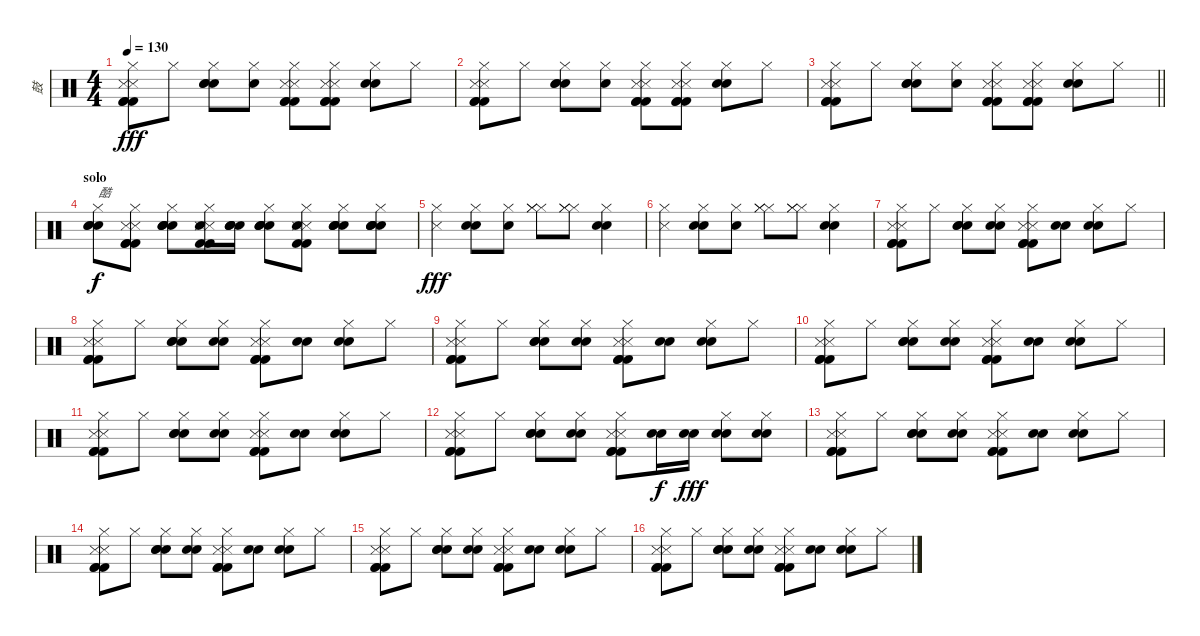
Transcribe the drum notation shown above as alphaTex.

\track ("鼓" "鼓") {instrument percussion}
\staff {score}
\articulation defaults
\ts (4 4)
\tempo 130
\clef neutral
\ks c
("Metronome (hit)" "Metronome (hit)" "Kick (hit) 2" "Kick (hit) 2" "Kick (hit) 2" "Hi-Hat (closed)").8{dy fff} "Hi-Hat (closed)".8 ("Electric Snare (hit)" "Electric Snare (hit)" "Electric Snare (hit)" "Hi-Hat (closed)").8 ("Hand Clap (hit)" "Hi-Hat (closed)").8 ("Metronome (hit)" "Metronome (hit)" "Kick (hit) 2" "Kick (hit) 2" "Kick (hit) 2" "Hi-Hat (closed)").8 ("Metronome (hit)" "Metronome (hit)" "Kick (hit) 2" "Kick (hit) 2" "Kick (hit) 2" "Hi-Hat (closed)").8 ("Electric Snare (hit)" "Electric Snare (hit)" "Hi-Hat (closed)").8 "Hi-Hat (closed)".8 |
("Metronome (hit)" "Metronome (hit)" "Kick (hit) 2" "Kick (hit) 2" "Kick (hit) 2" "Hi-Hat (closed)").8 "Hi-Hat (closed)".8 ("Electric Snare (hit)" "Electric Snare (hit)" "Electric Snare (hit)" "Hi-Hat (closed)").8 ("Hand Clap (hit)" "Hi-Hat (closed)").8 ("Metronome (hit)" "Metronome (hit)" "Kick (hit) 2" "Kick (hit) 2" "Kick (hit) 2" "Hi-Hat (closed)").8 ("Metronome (hit)" "Metronome (hit)" "Kick (hit) 2" "Kick (hit) 2" "Kick (hit) 2" "Hi-Hat (closed)").8 ("Electric Snare (hit)" "Electric Snare (hit)" "Hi-Hat (closed)").8 "Hi-Hat (closed)".8 |
\barLineRight lightlight
("Metronome (hit)" "Metronome (hit)" "Kick (hit) 2" "Kick (hit) 2" "Kick (hit) 2" "Hi-Hat (closed)").8 "Hi-Hat (closed)".8 ("Electric Snare (hit)" "Electric Snare (hit)" "Electric Snare (hit)" "Hi-Hat (closed)").8 ("Hand Clap (hit)" "Hi-Hat (closed)").8 ("Metronome (hit)" "Metronome (hit)" "Kick (hit) 2" "Kick (hit) 2" "Kick (hit) 2" "Hi-Hat (closed)").8 ("Metronome (hit)" "Metronome (hit)" "Kick (hit) 2" "Kick (hit) 2" "Kick (hit) 2" "Hi-Hat (closed)").8 ("Electric Snare (hit)" "Electric Snare (hit)" "Hi-Hat (closed)").8 "Hi-Hat (closed)".8 |
\section ("" "solo")
("Electric Snare (hit)" "Electric Snare (hit)" "Electric Snare (hit)" "Hi-Hat (closed)").8{txt "酷" dy f} ("Metronome (hit)" "Metronome (hit)" "Kick (hit) 2" "Kick (hit) 2" "Kick (hit) 2" "Hi-Hat (closed)").8 ("Electric Snare (hit)" "Electric Snare (hit)" "Electric Snare (hit)" "Hand Clap (hit)" "Hi-Hat (closed)").8 ("Metronome (hit)" "Metronome (hit)" "Kick (hit) 2" "Kick (hit) 2" "Hand Clap (hit)" "Hi-Hat (closed)").16 ("Electric Snare (hit)" "Electric Snare (hit)" "Electric Snare (hit)" "Hand Clap (hit)").16 ("Electric Snare (hit)" "Electric Snare (hit)" "Electric Snare (hit)" "Hand Clap (hit)" "Hi-Hat (closed)").8 ("Metronome (hit)" "Metronome (hit)" "Kick (hit) 2" "Kick (hit) 2" "Hand Clap (hit)" "Hi-Hat (closed)").8 ("Electric Snare (hit)" "Electric Snare (hit)" "Electric Snare (hit)" "Hand Clap (hit)" "Hi-Hat (closed)").8 ("Electric Snare (hit)" "Electric Snare (hit)" "Electric Snare (hit)" "Hand Clap (hit)" "Hi-Hat (closed)").8 |
("Metronome (hit)" "Hi-Hat (closed)").4{dy fff} ("Electric Snare (hit)" "Electric Snare (hit)" "Hi-Hat (closed)").8 ("Hand Clap (hit)" "Hi-Hat (closed)").8 ("Hi-Hat (closed)" "Hi-Hat (closed)" "Hi-Hat (closed)").8 ("Hi-Hat (closed)" "Hi-Hat (closed)" "Hi-Hat (closed)").8 ("Electric Snare (hit)" "Electric Snare (hit)" "Hi-Hat (closed)").4 |
("Metronome (hit)" "Hi-Hat (closed)").4 ("Electric Snare (hit)" "Electric Snare (hit)" "Hi-Hat (closed)").8 ("Hand Clap (hit)" "Hi-Hat (closed)").8 ("Hi-Hat (closed)" "Hi-Hat (closed)" "Hi-Hat (closed)").8 ("Hi-Hat (closed)" "Hi-Hat (closed)" "Hi-Hat (closed)").8 ("Electric Snare (hit)" "Electric Snare (hit)" "Hi-Hat (closed)").4 |
("Metronome (hit)" "Metronome (hit)" "Kick (hit) 2" "Kick (hit) 2" "Kick (hit) 2" "Hi-Hat (closed)").8 "Hi-Hat (closed)".8 ("Electric Snare (hit)" "Electric Snare (hit)" "Electric Snare (hit)" "Hi-Hat (closed)").8 ("Hand Clap (hit)" "Hand Clap (hit)" "Hi-Hat (closed)").8 ("Metronome (hit)" "Metronome (hit)" "Kick (hit) 2" "Kick (hit) 2" "Kick (hit) 2" "Hi-Hat (closed)").8 ("Hand Clap (hit)" "Hand Clap (hit)").8 ("Electric Snare (hit)" "Electric Snare (hit)" "Hi-Hat (closed)").8 "Hi-Hat (closed)".8 |
("Metronome (hit)" "Metronome (hit)" "Kick (hit) 2" "Kick (hit) 2" "Kick (hit) 2" "Hi-Hat (closed)").8 "Hi-Hat (closed)".8 ("Electric Snare (hit)" "Electric Snare (hit)" "Electric Snare (hit)" "Hi-Hat (closed)").8 ("Hand Clap (hit)" "Hand Clap (hit)" "Hi-Hat (closed)").8 ("Metronome (hit)" "Metronome (hit)" "Kick (hit) 2" "Kick (hit) 2" "Kick (hit) 2" "Hi-Hat (closed)").8 ("Hand Clap (hit)" "Hand Clap (hit)").8 ("Electric Snare (hit)" "Electric Snare (hit)" "Hi-Hat (closed)").8 "Hi-Hat (closed)".8 |
("Metronome (hit)" "Metronome (hit)" "Kick (hit) 2" "Kick (hit) 2" "Kick (hit) 2" "Hi-Hat (closed)").8 "Hi-Hat (closed)".8 ("Electric Snare (hit)" "Electric Snare (hit)" "Electric Snare (hit)" "Hi-Hat (closed)").8 ("Hand Clap (hit)" "Hand Clap (hit)" "Hi-Hat (closed)").8 ("Metronome (hit)" "Metronome (hit)" "Kick (hit) 2" "Kick (hit) 2" "Kick (hit) 2" "Hi-Hat (closed)").8 ("Hand Clap (hit)" "Hand Clap (hit)").8 ("Electric Snare (hit)" "Electric Snare (hit)" "Hi-Hat (closed)").8 "Hi-Hat (closed)".8 |
("Metronome (hit)" "Metronome (hit)" "Kick (hit) 2" "Kick (hit) 2" "Kick (hit) 2" "Hi-Hat (closed)").8 "Hi-Hat (closed)".8 ("Electric Snare (hit)" "Electric Snare (hit)" "Electric Snare (hit)" "Hi-Hat (closed)").8 ("Hand Clap (hit)" "Hand Clap (hit)" "Hi-Hat (closed)").8 ("Metronome (hit)" "Metronome (hit)" "Kick (hit) 2" "Kick (hit) 2" "Kick (hit) 2" "Hi-Hat (closed)").8 ("Hand Clap (hit)" "Hand Clap (hit)").8 ("Electric Snare (hit)" "Electric Snare (hit)" "Hi-Hat (closed)").8 "Hi-Hat (closed)".8 |
("Metronome (hit)" "Metronome (hit)" "Kick (hit) 2" "Kick (hit) 2" "Kick (hit) 2" "Hi-Hat (closed)").8 "Hi-Hat (closed)".8 ("Electric Snare (hit)" "Electric Snare (hit)" "Electric Snare (hit)" "Hi-Hat (closed)").8 ("Hand Clap (hit)" "Hand Clap (hit)" "Hi-Hat (closed)").8 ("Metronome (hit)" "Metronome (hit)" "Kick (hit) 2" "Kick (hit) 2" "Kick (hit) 2" "Hi-Hat (closed)").8 ("Hand Clap (hit)" "Hand Clap (hit)").8 ("Electric Snare (hit)" "Electric Snare (hit)" "Hi-Hat (closed)").8 "Hi-Hat (closed)".8 |
("Metronome (hit)" "Metronome (hit)" "Kick (hit) 2" "Kick (hit) 2" "Kick (hit) 2" "Hi-Hat (closed)").8 "Hi-Hat (closed)".8 ("Electric Snare (hit)" "Electric Snare (hit)" "Electric Snare (hit)" "Hi-Hat (closed)").8 ("Hand Clap (hit)" "Hand Clap (hit)" "Hi-Hat (closed)").8 ("Metronome (hit)" "Metronome (hit)" "Kick (hit) 2" "Kick (hit) 2" "Kick (hit) 2" "Hi-Hat (closed)").8 ("Hand Clap (hit)" "Hand Clap (hit)").16{dy f} ("Hand Clap (hit)" "Hand Clap (hit)").16{dy fff} ("Electric Snare (hit)" "Electric Snare (hit)" "Hi-Hat (closed)").8 ("Hand Clap (hit)" "Hand Clap (hit)" "Hi-Hat (closed)").8 |
("Metronome (hit)" "Metronome (hit)" "Kick (hit) 2" "Kick (hit) 2" "Kick (hit) 2" "Hi-Hat (closed)").8 "Hi-Hat (closed)".8 ("Electric Snare (hit)" "Electric Snare (hit)" "Electric Snare (hit)" "Hi-Hat (closed)").8 ("Hand Clap (hit)" "Hand Clap (hit)" "Hi-Hat (closed)").8 ("Metronome (hit)" "Metronome (hit)" "Kick (hit) 2" "Kick (hit) 2" "Kick (hit) 2" "Hi-Hat (closed)").8 ("Hand Clap (hit)" "Hand Clap (hit)").8 ("Electric Snare (hit)" "Electric Snare (hit)" "Hi-Hat (closed)").8 "Hi-Hat (closed)".8 |
("Metronome (hit)" "Metronome (hit)" "Kick (hit) 2" "Kick (hit) 2" "Kick (hit) 2" "Hi-Hat (closed)").8 "Hi-Hat (closed)".8 ("Electric Snare (hit)" "Electric Snare (hit)" "Electric Snare (hit)" "Hi-Hat (closed)").8 ("Hand Clap (hit)" "Hand Clap (hit)" "Hi-Hat (closed)").8 ("Metronome (hit)" "Metronome (hit)" "Kick (hit) 2" "Kick (hit) 2" "Kick (hit) 2" "Hi-Hat (closed)").8 ("Hand Clap (hit)" "Hand Clap (hit)").8 ("Electric Snare (hit)" "Electric Snare (hit)" "Hi-Hat (closed)").8 "Hi-Hat (closed)".8 |
("Metronome (hit)" "Metronome (hit)" "Kick (hit) 2" "Kick (hit) 2" "Kick (hit) 2" "Hi-Hat (closed)").8 "Hi-Hat (closed)".8 ("Electric Snare (hit)" "Electric Snare (hit)" "Electric Snare (hit)" "Hi-Hat (closed)").8 ("Hand Clap (hit)" "Hand Clap (hit)" "Hi-Hat (closed)").8 ("Metronome (hit)" "Metronome (hit)" "Kick (hit) 2" "Kick (hit) 2" "Kick (hit) 2" "Hi-Hat (closed)").8 ("Hand Clap (hit)" "Hand Clap (hit)").8 ("Electric Snare (hit)" "Electric Snare (hit)" "Hi-Hat (closed)").8 "Hi-Hat (closed)".8 |
("Metronome (hit)" "Metronome (hit)" "Kick (hit) 2" "Kick (hit) 2" "Kick (hit) 2" "Hi-Hat (closed)").8 "Hi-Hat (closed)".8 ("Electric Snare (hit)" "Electric Snare (hit)" "Electric Snare (hit)" "Hi-Hat (closed)").8 ("Hand Clap (hit)" "Hand Clap (hit)" "Hi-Hat (closed)").8 ("Metronome (hit)" "Metronome (hit)" "Kick (hit) 2" "Kick (hit) 2" "Kick (hit) 2" "Hi-Hat (closed)").8 ("Hand Clap (hit)" "Hand Clap (hit)").8 ("Electric Snare (hit)" "Electric Snare (hit)" "Hi-Hat (closed)").8 "Hi-Hat (closed)".8
